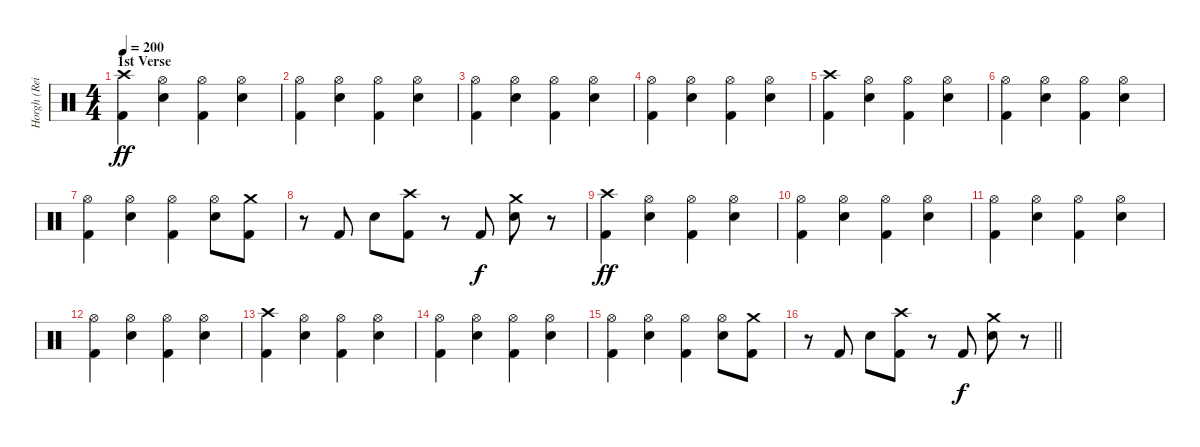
\track ("Horgh (Reidar Horghagen)" "Horgh (Rei") {instrument percussion}
\staff {score}
\articulation defaults
\ts (4 4)
\section ("" "1st Verse")
\tempo 200
\clef neutral
\ks c
("Crash high (hit)" "Kick (hit) 2").4{dy ff} ("Hi-Hat (open)" "Snare (hit) 2").4 ("Hi-Hat (open)" "Kick (hit) 2").4 ("Hi-Hat (open)" "Snare (hit) 2").4 |
("Hi-Hat (open)" "Kick (hit) 2").4 ("Hi-Hat (open)" "Snare (hit) 2").4 ("Hi-Hat (open)" "Kick (hit) 2").4 ("Hi-Hat (open)" "Snare (hit) 2").4 |
("Hi-Hat (open)" "Kick (hit) 2").4 ("Hi-Hat (open)" "Snare (hit) 2").4 ("Hi-Hat (open)" "Kick (hit) 2").4 ("Hi-Hat (open)" "Snare (hit) 2").4 |
("Hi-Hat (open)" "Kick (hit) 2").4 ("Hi-Hat (open)" "Snare (hit) 2").4 ("Hi-Hat (open)" "Kick (hit) 2").4 ("Hi-Hat (open)" "Snare (hit) 2").4 |
("Crash high (hit)" "Kick (hit) 2").4 ("Hi-Hat (open)" "Snare (hit) 2").4 ("Hi-Hat (open)" "Kick (hit) 2").4 ("Hi-Hat (open)" "Snare (hit) 2").4 |
("Hi-Hat (open)" "Kick (hit) 2").4 ("Hi-Hat (open)" "Snare (hit) 2").4 ("Hi-Hat (open)" "Kick (hit) 2").4 ("Hi-Hat (open)" "Snare (hit) 2").4 |
("Hi-Hat (open)" "Kick (hit) 2").4 ("Hi-Hat (open)" "Snare (hit) 2").4 ("Hi-Hat (open)" "Kick (hit) 2").4 ("Hi-Hat (open)" "Snare (hit) 2").8 ("Crash medium (hit)" "Kick (hit) 2").8 |
r.8 "Kick (hit) 2".8 "Snare (hit) 2".8 ("Crash high (hit)" "Kick (hit) 2").8 r.8 "Kick (hit) 2".8{dy f} ("Crash medium (hit)" "Snare (hit) 2").8 r.8 |
("Crash high (hit)" "Kick (hit) 2").4{dy ff} ("Hi-Hat (open)" "Snare (hit) 2").4 ("Hi-Hat (open)" "Kick (hit) 2").4 ("Hi-Hat (open)" "Snare (hit) 2").4 |
("Hi-Hat (open)" "Kick (hit) 2").4 ("Hi-Hat (open)" "Snare (hit) 2").4 ("Hi-Hat (open)" "Kick (hit) 2").4 ("Hi-Hat (open)" "Snare (hit) 2").4 |
("Hi-Hat (open)" "Kick (hit) 2").4 ("Hi-Hat (open)" "Snare (hit) 2").4 ("Hi-Hat (open)" "Kick (hit) 2").4 ("Hi-Hat (open)" "Snare (hit) 2").4 |
("Hi-Hat (open)" "Kick (hit) 2").4 ("Hi-Hat (open)" "Snare (hit) 2").4 ("Hi-Hat (open)" "Kick (hit) 2").4 ("Hi-Hat (open)" "Snare (hit) 2").4 |
("Crash high (hit)" "Kick (hit) 2").4 ("Hi-Hat (open)" "Snare (hit) 2").4 ("Hi-Hat (open)" "Kick (hit) 2").4 ("Hi-Hat (open)" "Snare (hit) 2").4 |
("Hi-Hat (open)" "Kick (hit) 2").4 ("Hi-Hat (open)" "Snare (hit) 2").4 ("Hi-Hat (open)" "Kick (hit) 2").4 ("Hi-Hat (open)" "Snare (hit) 2").4 |
("Hi-Hat (open)" "Kick (hit) 2").4 ("Hi-Hat (open)" "Snare (hit) 2").4 ("Hi-Hat (open)" "Kick (hit) 2").4 ("Hi-Hat (open)" "Snare (hit) 2").8 ("Crash medium (hit)" "Kick (hit) 2").8 |
\barLineRight lightlight
r.8 "Kick (hit) 2".8 "Snare (hit) 2".8 ("Crash high (hit)" "Kick (hit) 2").8 r.8 "Kick (hit) 2".8{dy f} ("Crash medium (hit)" "Snare (hit) 2").8 r.8
